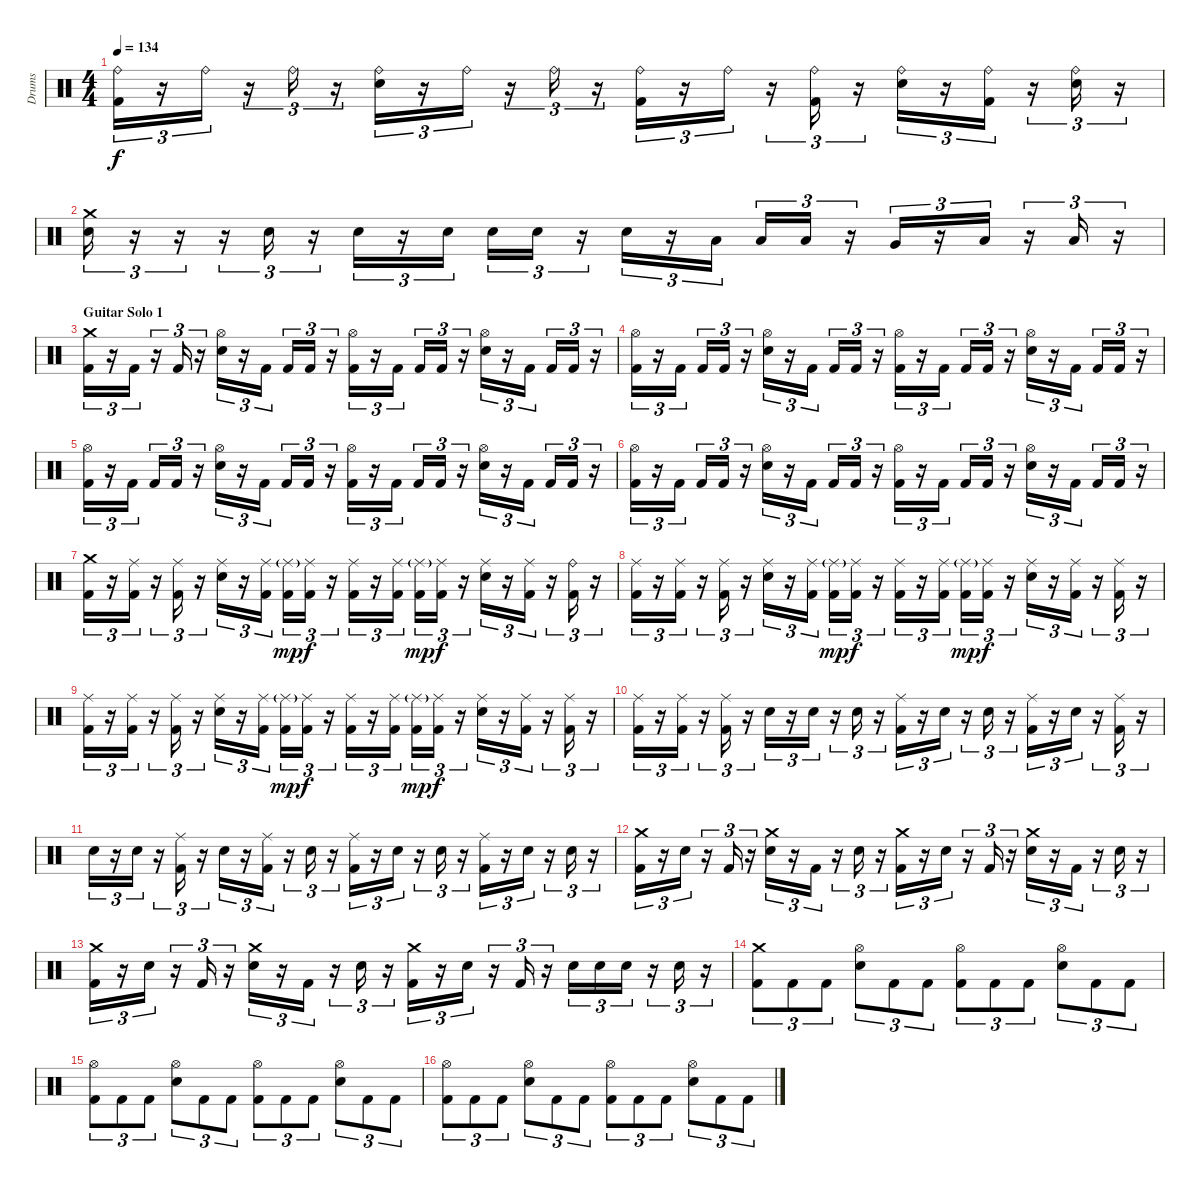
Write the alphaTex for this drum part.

\track ("Drums" "Drums") {instrument percussion}
\staff {score}
\articulation defaults
\ts (4 4)
\tempo 134
\clef neutral
\ks c
("Ride (bell)" "Kick (hit) 2").16{tu (3 2) dy f} r.16{tu (3 2)} "Ride (bell)".16{tu (3 2)} r.16{tu (3 2)} "Ride (bell)".16{tu (3 2)} r.16{tu (3 2)} ("Ride (bell)" "Electric Snare (hit)").16{tu (3 2)} r.16{tu (3 2)} "Ride (bell)".16{tu (3 2)} r.16{tu (3 2)} "Ride (bell)".16{tu (3 2)} r.16{tu (3 2)} ("Ride (bell)" "Kick (hit) 2").16{tu (3 2)} r.16{tu (3 2)} "Ride (bell)".16{tu (3 2)} r.16{tu (3 2)} ("Ride (bell)" "Kick (hit) 2").16{tu (3 2)} r.16{tu (3 2)} ("Ride (bell)" "Electric Snare (hit)").16{tu (3 2)} r.16{tu (3 2)} ("Ride (bell)" "Kick (hit) 2").16{tu (3 2)} r.16{tu (3 2)} ("Ride (bell)" "Electric Snare (hit)").16{tu (3 2)} r.16{tu (3 2)} |
("Crash medium (hit)" "Electric Snare (hit)").16{tu (3 2)} r.16{tu (3 2)} r.16{tu (3 2)} r.16{tu (3 2)} "Electric Snare (hit)".16{tu (3 2)} r.16{tu (3 2)} "Electric Snare (hit)".16{tu (3 2)} r.16{tu (3 2)} "Electric Snare (hit)".16{tu (3 2)} "Electric Snare (hit)".16{tu (3 2)} "Electric Snare (hit)".16{tu (3 2)} r.16{tu (3 2)} "Electric Snare (hit)".16{tu (3 2)} r.16{tu (3 2)} "Low Tom (hit)".16{tu (3 2)} "Low Tom (hit)".16{tu (3 2)} "Low Tom (hit)".16{tu (3 2)} r.16{tu (3 2)} "Very Low Tom (hit)".16{tu (3 2)} r.16{tu (3 2)} "Low Floor Tom (hit)".16{tu (3 2)} r.16{tu (3 2)} "Low Floor Tom (hit)".16{tu (3 2)} r.16{tu (3 2)} |
\section ("" "Guitar Solo 1")
("Crash medium (hit)" "Kick (hit) 2").16{tu (3 2)} r.16{tu (3 2)} "Kick (hit) 2".16{tu (3 2)} r.16{tu (3 2)} "Kick (hit) 2".16{tu (3 2)} r.16{tu (3 2)} ("Hi-Hat (open)" "Electric Snare (hit)").16{tu (3 2)} r.16{tu (3 2)} "Kick (hit) 2".16{tu (3 2)} "Kick (hit) 2".16{tu (3 2)} "Kick (hit) 2".16{tu (3 2)} r.16{tu (3 2)} ("Hi-Hat (open)" "Kick (hit) 2").16{tu (3 2)} r.16{tu (3 2)} "Kick (hit) 2".16{tu (3 2)} "Kick (hit) 2".16{tu (3 2)} "Kick (hit) 2".16{tu (3 2)} r.16{tu (3 2)} ("Hi-Hat (open)" "Electric Snare (hit)").16{tu (3 2)} r.16{tu (3 2)} "Kick (hit) 2".16{tu (3 2)} "Kick (hit) 2".16{tu (3 2)} "Kick (hit) 2".16{tu (3 2)} r.16{tu (3 2)} |
("Hi-Hat (open)" "Kick (hit) 2").16{tu (3 2)} r.16{tu (3 2)} "Kick (hit) 2".16{tu (3 2)} "Kick (hit) 2".16{tu (3 2)} "Kick (hit) 2".16{tu (3 2)} r.16{tu (3 2)} ("Hi-Hat (open)" "Electric Snare (hit)").16{tu (3 2)} r.16{tu (3 2)} "Kick (hit) 2".16{tu (3 2)} "Kick (hit) 2".16{tu (3 2)} "Kick (hit) 2".16{tu (3 2)} r.16{tu (3 2)} ("Hi-Hat (open)" "Kick (hit) 2").16{tu (3 2)} r.16{tu (3 2)} "Kick (hit) 2".16{tu (3 2)} "Kick (hit) 2".16{tu (3 2)} "Kick (hit) 2".16{tu (3 2)} r.16{tu (3 2)} ("Hi-Hat (open)" "Electric Snare (hit)").16{tu (3 2)} r.16{tu (3 2)} "Kick (hit) 2".16{tu (3 2)} "Kick (hit) 2".16{tu (3 2)} "Kick (hit) 2".16{tu (3 2)} r.16{tu (3 2)} |
("Hi-Hat (open)" "Kick (hit) 2").16{tu (3 2)} r.16{tu (3 2)} "Kick (hit) 2".16{tu (3 2)} "Kick (hit) 2".16{tu (3 2)} "Kick (hit) 2".16{tu (3 2)} r.16{tu (3 2)} ("Hi-Hat (open)" "Electric Snare (hit)").16{tu (3 2)} r.16{tu (3 2)} "Kick (hit) 2".16{tu (3 2)} "Kick (hit) 2".16{tu (3 2)} "Kick (hit) 2".16{tu (3 2)} r.16{tu (3 2)} ("Hi-Hat (open)" "Kick (hit) 2").16{tu (3 2)} r.16{tu (3 2)} "Kick (hit) 2".16{tu (3 2)} "Kick (hit) 2".16{tu (3 2)} "Kick (hit) 2".16{tu (3 2)} r.16{tu (3 2)} ("Hi-Hat (open)" "Electric Snare (hit)").16{tu (3 2)} r.16{tu (3 2)} "Kick (hit) 2".16{tu (3 2)} "Kick (hit) 2".16{tu (3 2)} "Kick (hit) 2".16{tu (3 2)} r.16{tu (3 2)} |
("Hi-Hat (open)" "Kick (hit) 2").16{tu (3 2)} r.16{tu (3 2)} "Kick (hit) 2".16{tu (3 2)} "Kick (hit) 2".16{tu (3 2)} "Kick (hit) 2".16{tu (3 2)} r.16{tu (3 2)} ("Hi-Hat (open)" "Electric Snare (hit)").16{tu (3 2)} r.16{tu (3 2)} "Kick (hit) 2".16{tu (3 2)} "Kick (hit) 2".16{tu (3 2)} "Kick (hit) 2".16{tu (3 2)} r.16{tu (3 2)} ("Hi-Hat (open)" "Kick (hit) 2").16{tu (3 2)} r.16{tu (3 2)} "Kick (hit) 2".16{tu (3 2)} "Kick (hit) 2".16{tu (3 2)} "Kick (hit) 2".16{tu (3 2)} r.16{tu (3 2)} ("Hi-Hat (open)" "Electric Snare (hit)").16{tu (3 2)} r.16{tu (3 2)} "Kick (hit) 2".16{tu (3 2)} "Kick (hit) 2".16{tu (3 2)} "Kick (hit) 2".16{tu (3 2)} r.16{tu (3 2)} |
("Crash medium (hit)" "Kick (hit) 2").16{tu (3 2)} r.16{tu (3 2)} ("Ride (middle)" "Kick (hit) 2").16{tu (3 2)} r.16{tu (3 2)} ("Ride (middle)" "Kick (hit) 2").16{tu (3 2)} r.16{tu (3 2)} ("Ride (middle)" "Electric Snare (hit)").16{tu (3 2)} r.16{tu (3 2)} ("Ride (middle)" "Kick (hit) 2").16{tu (3 2)} ("Ride (middle)"{g} "Kick (hit) 2").16{tu (3 2) dy mp} ("Ride (middle)" "Kick (hit) 2").16{tu (3 2) dy f} r.16{tu (3 2)} ("Ride (middle)" "Kick (hit) 2").16{tu (3 2)} r.16{tu (3 2)} ("Ride (middle)" "Kick (hit) 2").16{tu (3 2)} ("Ride (middle)"{g} "Kick (hit) 2").16{tu (3 2) dy mp} ("Ride (middle)" "Kick (hit) 2").16{tu (3 2) dy f} r.16{tu (3 2)} ("Ride (middle)" "Electric Snare (hit)").16{tu (3 2)} r.16{tu (3 2)} ("Ride (middle)" "Kick (hit) 2").16{tu (3 2)} r.16{tu (3 2)} ("Ride (bell)" "Kick (hit) 2").16{tu (3 2)} r.16{tu (3 2)} |
("Ride (middle)" "Kick (hit) 2").16{tu (3 2)} r.16{tu (3 2)} ("Ride (middle)" "Kick (hit) 2").16{tu (3 2)} r.16{tu (3 2)} ("Ride (middle)" "Kick (hit) 2").16{tu (3 2)} r.16{tu (3 2)} ("Ride (middle)" "Electric Snare (hit)").16{tu (3 2)} r.16{tu (3 2)} ("Ride (middle)" "Kick (hit) 2").16{tu (3 2)} ("Ride (middle)"{g} "Kick (hit) 2").16{tu (3 2) dy mp} ("Ride (middle)" "Kick (hit) 2").16{tu (3 2) dy f} r.16{tu (3 2)} ("Ride (middle)" "Kick (hit) 2").16{tu (3 2)} r.16{tu (3 2)} ("Ride (middle)" "Kick (hit) 2").16{tu (3 2)} ("Ride (middle)"{g} "Kick (hit) 2").16{tu (3 2) dy mp} ("Ride (middle)" "Kick (hit) 2").16{tu (3 2) dy f} r.16{tu (3 2)} ("Ride (middle)" "Electric Snare (hit)").16{tu (3 2)} r.16{tu (3 2)} ("Ride (middle)" "Kick (hit) 2").16{tu (3 2)} r.16{tu (3 2)} ("Ride (middle)" "Kick (hit) 2").16{tu (3 2)} r.16{tu (3 2)} |
("Ride (middle)" "Kick (hit) 2").16{tu (3 2)} r.16{tu (3 2)} ("Ride (middle)" "Kick (hit) 2").16{tu (3 2)} r.16{tu (3 2)} ("Ride (middle)" "Kick (hit) 2").16{tu (3 2)} r.16{tu (3 2)} ("Ride (middle)" "Electric Snare (hit)").16{tu (3 2)} r.16{tu (3 2)} ("Ride (middle)" "Kick (hit) 2").16{tu (3 2)} ("Ride (middle)"{g} "Kick (hit) 2").16{tu (3 2) dy mp} ("Ride (middle)" "Kick (hit) 2").16{tu (3 2) dy f} r.16{tu (3 2)} ("Ride (middle)" "Kick (hit) 2").16{tu (3 2)} r.16{tu (3 2)} ("Ride (middle)" "Kick (hit) 2").16{tu (3 2)} ("Ride (middle)"{g} "Kick (hit) 2").16{tu (3 2) dy mp} ("Ride (middle)" "Kick (hit) 2").16{tu (3 2) dy f} r.16{tu (3 2)} ("Ride (middle)" "Electric Snare (hit)").16{tu (3 2)} r.16{tu (3 2)} ("Ride (middle)" "Kick (hit) 2").16{tu (3 2)} r.16{tu (3 2)} ("Ride (middle)" "Kick (hit) 2").16{tu (3 2)} r.16{tu (3 2)} |
("Ride (middle)" "Kick (hit) 2").16{tu (3 2)} r.16{tu (3 2)} ("Ride (middle)" "Kick (hit) 2").16{tu (3 2)} r.16{tu (3 2)} ("Ride (middle)" "Kick (hit) 2").16{tu (3 2)} r.16{tu (3 2)} "Electric Snare (hit)".16{tu (3 2)} r.16{tu (3 2)} "Electric Snare (hit)".16{tu (3 2)} r.16{tu (3 2)} "Electric Snare (hit)".16{tu (3 2)} r.16{tu (3 2)} ("Ride (middle)" "Kick (hit) 2").16{tu (3 2)} r.16{tu (3 2)} "Electric Snare (hit)".16{tu (3 2)} r.16{tu (3 2)} "Electric Snare (hit)".16{tu (3 2)} r.16{tu (3 2)} ("Ride (middle)" "Kick (hit) 2").16{tu (3 2)} r.16{tu (3 2)} "Electric Snare (hit)".16{tu (3 2)} r.16{tu (3 2)} ("Ride (middle)" "Kick (hit) 2").16{tu (3 2)} r.16{tu (3 2)} |
"Electric Snare (hit)".16{tu (3 2)} r.16{tu (3 2)} "Electric Snare (hit)".16{tu (3 2)} r.16{tu (3 2)} ("Ride (middle)" "Kick (hit) 2").16{tu (3 2)} r.16{tu (3 2)} "Electric Snare (hit)".16{tu (3 2)} r.16{tu (3 2)} ("Ride (middle)" "Kick (hit) 2").16{tu (3 2)} r.16{tu (3 2)} "Electric Snare (hit)".16{tu (3 2)} r.16{tu (3 2)} ("Ride (middle)" "Kick (hit) 2").16{tu (3 2)} r.16{tu (3 2)} "Electric Snare (hit)".16{tu (3 2)} r.16{tu (3 2)} "Electric Snare (hit)".16{tu (3 2)} r.16{tu (3 2)} ("Ride (middle)" "Kick (hit) 2").16{tu (3 2)} r.16{tu (3 2)} "Electric Snare (hit)".16{tu (3 2)} r.16{tu (3 2)} "Electric Snare (hit)".16{tu (3 2)} r.16{tu (3 2)} |
\section ("" "")
("Crash medium (hit)" "Kick (hit) 2").16{tu (3 2)} r.16{tu (3 2)} "Electric Snare (hit)".16{tu (3 2)} r.16{tu (3 2)} "Kick (hit) 2".16{tu (3 2)} r.16{tu (3 2)} ("Crash medium (hit)" "Electric Snare (hit)").16{tu (3 2)} r.16{tu (3 2)} "Kick (hit) 2".16{tu (3 2)} r.16{tu (3 2)} "Electric Snare (hit)".16{tu (3 2)} r.16{tu (3 2)} ("Crash medium (hit)" "Kick (hit) 2").16{tu (3 2)} r.16{tu (3 2)} "Electric Snare (hit)".16{tu (3 2)} r.16{tu (3 2)} "Kick (hit) 2".16{tu (3 2)} r.16{tu (3 2)} ("Crash medium (hit)" "Electric Snare (hit)").16{tu (3 2)} r.16{tu (3 2)} "Kick (hit) 2".16{tu (3 2)} r.16{tu (3 2)} "Electric Snare (hit)".16{tu (3 2)} r.16{tu (3 2)} |
("Crash medium (hit)" "Kick (hit) 2").16{tu (3 2)} r.16{tu (3 2)} "Electric Snare (hit)".16{tu (3 2)} r.16{tu (3 2)} "Kick (hit) 2".16{tu (3 2)} r.16{tu (3 2)} ("Crash medium (hit)" "Electric Snare (hit)").16{tu (3 2)} r.16{tu (3 2)} "Kick (hit) 2".16{tu (3 2)} r.16{tu (3 2)} "Electric Snare (hit)".16{tu (3 2)} r.16{tu (3 2)} ("Crash medium (hit)" "Kick (hit) 2").16{tu (3 2)} r.16{tu (3 2)} "Electric Snare (hit)".16{tu (3 2)} r.16{tu (3 2)} "Kick (hit) 2".16{tu (3 2)} r.16{tu (3 2)} "Electric Snare (hit)".16{tu (3 2)} "Electric Snare (hit)".16{tu (3 2)} "Electric Snare (hit)".16{tu (3 2)} r.16{tu (3 2)} "Electric Snare (hit)".16{tu (3 2)} r.16{tu (3 2)} |
\section ("" "")
("Crash medium (hit)" "Kick (hit) 2").8{tu (3 2)} "Kick (hit) 2".8{tu (3 2)} "Kick (hit) 2".8{tu (3 2)} ("Hi-Hat (open)" "Electric Snare (hit)").8{tu (3 2)} "Kick (hit) 2".8{tu (3 2)} "Kick (hit) 2".8{tu (3 2)} ("Hi-Hat (open)" "Kick (hit) 2").8{tu (3 2)} "Kick (hit) 2".8{tu (3 2)} "Kick (hit) 2".8{tu (3 2)} ("Hi-Hat (open)" "Electric Snare (hit)").8{tu (3 2)} "Kick (hit) 2".8{tu (3 2)} "Kick (hit) 2".8{tu (3 2)} |
("Hi-Hat (open)" "Kick (hit) 2").8{tu (3 2)} "Kick (hit) 2".8{tu (3 2)} "Kick (hit) 2".8{tu (3 2)} ("Hi-Hat (open)" "Electric Snare (hit)").8{tu (3 2)} "Kick (hit) 2".8{tu (3 2)} "Kick (hit) 2".8{tu (3 2)} ("Hi-Hat (open)" "Kick (hit) 2").8{tu (3 2)} "Kick (hit) 2".8{tu (3 2)} "Kick (hit) 2".8{tu (3 2)} ("Hi-Hat (open)" "Electric Snare (hit)").8{tu (3 2)} "Kick (hit) 2".8{tu (3 2)} "Kick (hit) 2".8{tu (3 2)} |
("Hi-Hat (open)" "Kick (hit) 2").8{tu (3 2)} "Kick (hit) 2".8{tu (3 2)} "Kick (hit) 2".8{tu (3 2)} ("Hi-Hat (open)" "Electric Snare (hit)").8{tu (3 2)} "Kick (hit) 2".8{tu (3 2)} "Kick (hit) 2".8{tu (3 2)} ("Hi-Hat (open)" "Kick (hit) 2").8{tu (3 2)} "Kick (hit) 2".8{tu (3 2)} "Kick (hit) 2".8{tu (3 2)} ("Hi-Hat (open)" "Electric Snare (hit)").8{tu (3 2)} "Kick (hit) 2".8{tu (3 2)} "Kick (hit) 2".8{tu (3 2)}
